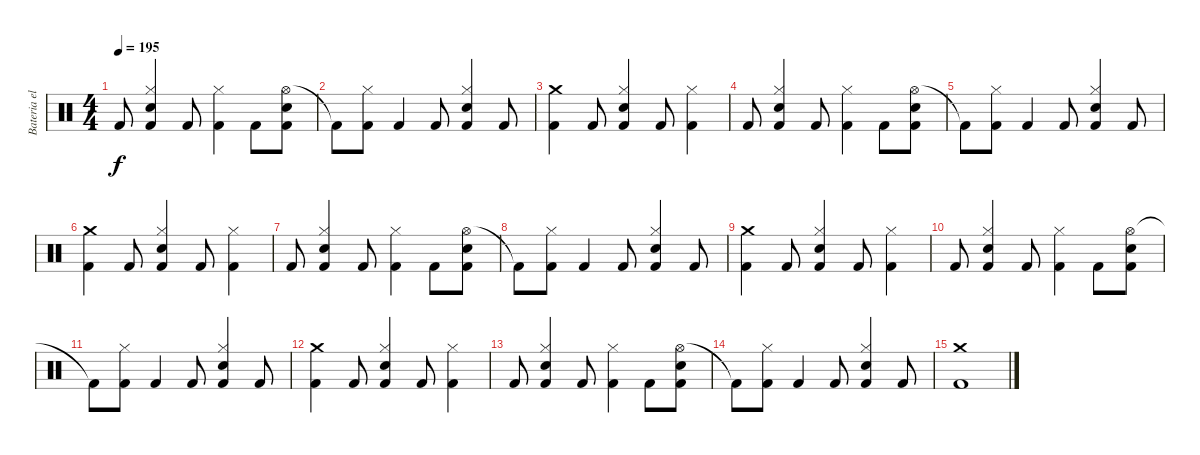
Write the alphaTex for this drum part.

\track ("Bateria electrica" "Bateria el") {instrument percussion}
\staff {score}
\articulation defaults
\ts (4 4)
\tempo 195
\clef neutral
\ks c "Kick (hit) 2".8{dy f}
("Hi-Hat (closed)" "Kick (hit) 2" "Snare (hit) 2").4 "Kick (hit) 2".8 ("Hi-Hat (closed)" "Kick (hit) 2").4 "Kick (hit) 2".8 ("Hi-Hat (open)" "Kick (hit) 2" "Snare (hit) 2").8 |
"Kick (hit) 2"{t}.8 ("Hi-Hat (closed)" "Kick (hit) 2").8 "Kick (hit) 2".4 "Kick (hit) 2".8 ("Hi-Hat (closed)" "Kick (hit) 2" "Snare (hit) 2").4 "Kick (hit) 2".8 |
("Crash medium (hit)" "Kick (hit) 2").4 "Kick (hit) 2".8 ("Hi-Hat (closed)" "Kick (hit) 2" "Snare (hit) 2").4 "Kick (hit) 2".8 ("Hi-Hat (closed)" "Kick (hit) 2").4 |
"Kick (hit) 2".8 ("Hi-Hat (closed)" "Kick (hit) 2" "Snare (hit) 2").4 "Kick (hit) 2".8 ("Hi-Hat (closed)" "Kick (hit) 2").4 "Kick (hit) 2".8 ("Hi-Hat (open)" "Kick (hit) 2" "Snare (hit) 2").8 |
"Kick (hit) 2"{t}.8 ("Hi-Hat (closed)" "Kick (hit) 2").8 "Kick (hit) 2".4 "Kick (hit) 2".8 ("Hi-Hat (closed)" "Kick (hit) 2" "Snare (hit) 2").4 "Kick (hit) 2".8 |
("Crash medium (hit)" "Kick (hit) 2").4 "Kick (hit) 2".8 ("Hi-Hat (closed)" "Kick (hit) 2" "Snare (hit) 2").4 "Kick (hit) 2".8 ("Hi-Hat (closed)" "Kick (hit) 2").4 |
"Kick (hit) 2".8 ("Hi-Hat (closed)" "Kick (hit) 2" "Snare (hit) 2").4 "Kick (hit) 2".8 ("Hi-Hat (closed)" "Kick (hit) 2").4 "Kick (hit) 2".8 ("Hi-Hat (open)" "Kick (hit) 2" "Snare (hit) 2").8 |
"Kick (hit) 2"{t}.8 ("Hi-Hat (closed)" "Kick (hit) 2").8 "Kick (hit) 2".4 "Kick (hit) 2".8 ("Hi-Hat (closed)" "Kick (hit) 2" "Snare (hit) 2").4 "Kick (hit) 2".8 |
("Crash medium (hit)" "Kick (hit) 2").4 "Kick (hit) 2".8 ("Hi-Hat (closed)" "Kick (hit) 2" "Snare (hit) 2").4 "Kick (hit) 2".8 ("Hi-Hat (closed)" "Kick (hit) 2").4 |
"Kick (hit) 2".8 ("Hi-Hat (closed)" "Kick (hit) 2" "Snare (hit) 2").4 "Kick (hit) 2".8 ("Hi-Hat (closed)" "Kick (hit) 2").4 "Kick (hit) 2".8 ("Hi-Hat (open)" "Kick (hit) 2" "Snare (hit) 2").8 |
"Kick (hit) 2"{t}.8 ("Hi-Hat (closed)" "Kick (hit) 2").8 "Kick (hit) 2".4 "Kick (hit) 2".8 ("Hi-Hat (closed)" "Kick (hit) 2" "Snare (hit) 2").4 "Kick (hit) 2".8 |
("Crash medium (hit)" "Kick (hit) 2").4 "Kick (hit) 2".8 ("Hi-Hat (closed)" "Kick (hit) 2" "Snare (hit) 2").4 "Kick (hit) 2".8 ("Hi-Hat (closed)" "Kick (hit) 2").4 |
"Kick (hit) 2".8 ("Hi-Hat (closed)" "Kick (hit) 2" "Snare (hit) 2").4 "Kick (hit) 2".8 ("Hi-Hat (closed)" "Kick (hit) 2").4 "Kick (hit) 2".8 ("Hi-Hat (open)" "Kick (hit) 2" "Snare (hit) 2").8 |
"Kick (hit) 2"{t}.8 ("Hi-Hat (closed)" "Kick (hit) 2").8 "Kick (hit) 2".4 "Kick (hit) 2".8 ("Hi-Hat (closed)" "Kick (hit) 2" "Snare (hit) 2").4 "Kick (hit) 2".8 |
("Kick (hit) 2" "Crash medium (hit)").1
